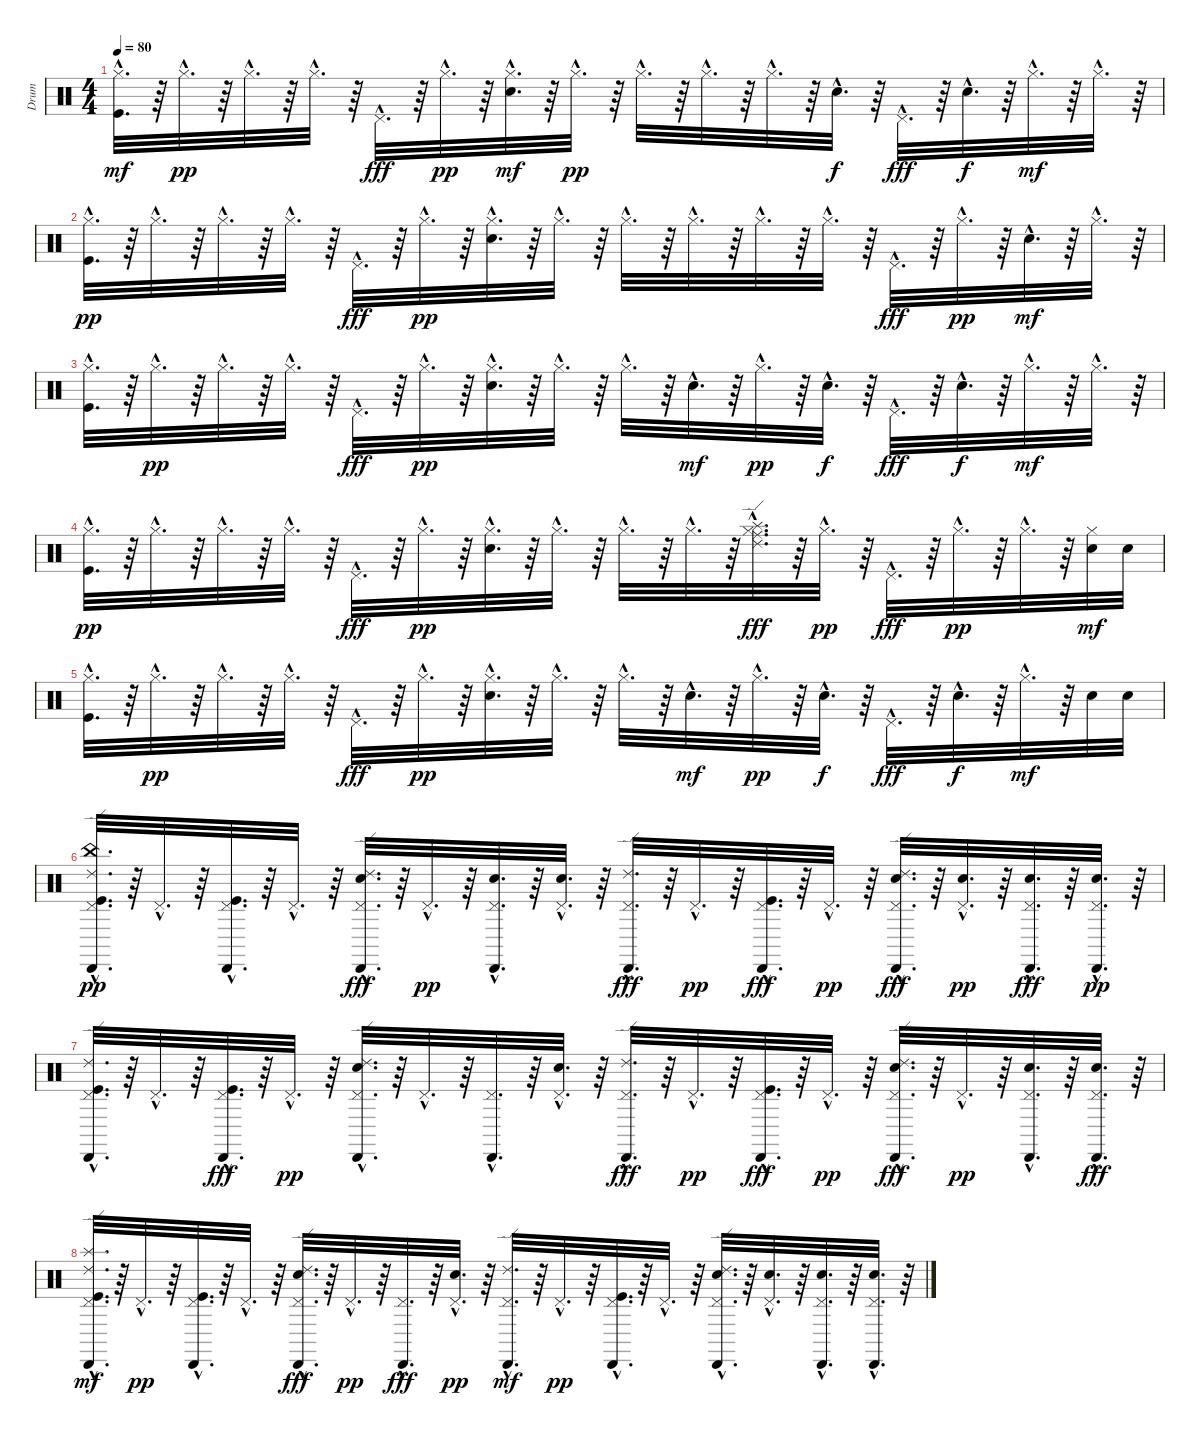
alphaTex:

\track ("Drum" "Drum") {instrument percussion}
\staff {score}
\articulation defaults
\ts (4 4)
\tempo 80
\clef neutral
\ks c
("Hi-Hat (closed)"{hac} "Kick (hit)"{hac}).32{d dy mf} r.64 "Hi-Hat (closed)"{hac}.32{d dy pp} r.64 "Hi-Hat (closed)"{hac}.32{d} r.64 "Hi-Hat (closed)"{hac}.32{d} r.64 "Pedal Hi-Hat (hit)"{hac}.32{d dy fff} r.64 "Hi-Hat (closed)"{hac}.32{d dy pp} r.64 ("Hi-Hat (closed)"{hac} "Electric Snare (hit)"{hac}).32{d dy mf} r.64 "Hi-Hat (closed)"{hac}.32{d dy pp} r.64 "Hi-Hat (closed)"{hac}.32{d} r.64 "Hi-Hat (closed)"{hac}.32{d} r.64 "Hi-Hat (closed)"{hac}.32{d} r.64 "Electric Snare (hit)"{hac}.32{d dy f} r.64 "Pedal Hi-Hat (hit)"{hac}.32{d dy fff} r.64 "Electric Snare (hit)"{hac}.32{d dy f} r.64 "Hi-Hat (closed)"{hac}.32{d dy mf} r.64 "Hi-Hat (closed)"{hac}.32{d} r.64 |
("Kick (hit)"{hac} "Hi-Hat (closed)"{hac}).32{d dy pp} r.64 "Hi-Hat (closed)"{hac}.32{d} r.64 "Hi-Hat (closed)"{hac}.32{d} r.64 "Hi-Hat (closed)"{hac}.32{d} r.64 "Pedal Hi-Hat (hit)"{hac}.32{d dy fff} r.64 "Hi-Hat (closed)"{hac}.32{d dy pp} r.64 ("Electric Snare (hit)"{hac} "Hi-Hat (closed)"{hac}).32{d} r.64 "Hi-Hat (closed)"{hac}.32{d} r.64 "Hi-Hat (closed)"{hac}.32{d} r.64 "Hi-Hat (closed)"{hac}.32{d} r.64 "Hi-Hat (closed)"{hac}.32{d} r.64 "Hi-Hat (closed)"{hac}.32{d} r.64 "Pedal Hi-Hat (hit)"{hac}.32{d dy fff} r.64 "Hi-Hat (closed)"{hac}.32{d dy pp} r.64 "Electric Snare (hit)"{hac}.32{d dy mf} r.64 "Hi-Hat (closed)"{hac}.32{d} r.64 |
("Hi-Hat (closed)"{hac} "Kick (hit)"{hac}).32{d} r.64 "Hi-Hat (closed)"{hac}.32{d dy pp} r.64 "Hi-Hat (closed)"{hac}.32{d} r.64 "Hi-Hat (closed)"{hac}.32{d} r.64 "Pedal Hi-Hat (hit)"{hac}.32{d dy fff} r.64 "Hi-Hat (closed)"{hac}.32{d dy pp} r.64 ("Electric Snare (hit)"{hac} "Hi-Hat (closed)"{hac}).32{d} r.64 "Hi-Hat (closed)"{hac}.32{d} r.64 "Hi-Hat (closed)"{hac}.32{d} r.64 "Electric Snare (hit)"{hac}.32{d dy mf} r.64 "Hi-Hat (closed)"{hac}.32{d dy pp} r.64 "Electric Snare (hit)"{hac}.32{d dy f} r.64 "Pedal Hi-Hat (hit)"{hac}.32{d dy fff} r.64 "Electric Snare (hit)"{hac}.32{d dy f} r.64 "Hi-Hat (closed)"{hac}.32{d dy mf} r.64 "Hi-Hat (closed)"{hac}.32{d} r.64 |
("Kick (hit)"{hac} "Hi-Hat (closed)"{hac}).32{d dy pp} r.64 "Hi-Hat (closed)"{hac}.32{d} r.64 "Hi-Hat (closed)"{hac}.32{d} r.64 "Hi-Hat (closed)"{hac}.32{d} r.64 "Pedal Hi-Hat (hit)"{hac}.32{d dy fff} r.64 "Hi-Hat (closed)"{hac}.32{d dy pp} r.64 ("Electric Snare (hit)"{hac} "Hi-Hat (closed)"{hac}).32{d} r.64 "Hi-Hat (closed)"{hac}.32{d} r.64 "Hi-Hat (closed)"{hac}.32{d} r.64 "Hi-Hat (closed)"{hac}.32{d} r.64 ("Hi-Hat (closed)"{hac} "Splash (hit)"{hac} "Ride (edge) 2"{hac} "Ride (middle)"{hac}).32{d dy fff} r.64 "Hi-Hat (closed)"{hac}.32{d dy pp} r.64 "Pedal Hi-Hat (hit)"{hac}.32{d dy fff} r.64 "Hi-Hat (closed)"{hac}.32{d dy pp} r.64 "Hi-Hat (closed)"{hac}.32{d} r.64 ("Hi-Hat (closed)" "Electric Snare (hit)").32{dy mf} "Electric Snare (hit)".32 |
("Hi-Hat (closed)"{hac} "Kick (hit)"{hac}).32{d} r.64 "Hi-Hat (closed)"{hac}.32{d dy pp} r.64 "Hi-Hat (closed)"{hac}.32{d} r.64 "Hi-Hat (closed)"{hac}.32{d} r.64 "Pedal Hi-Hat (hit)"{hac}.32{d dy fff} r.64 "Hi-Hat (closed)"{hac}.32{d dy pp} r.64 ("Electric Snare (hit)"{hac} "Hi-Hat (closed)"{hac}).32{d} r.64 "Hi-Hat (closed)"{hac}.32{d} r.64 "Hi-Hat (closed)"{hac}.32{d} r.64 "Electric Snare (hit)"{hac}.32{d dy mf} r.64 "Hi-Hat (closed)"{hac}.32{d dy pp} r.64 "Electric Snare (hit)"{hac}.32{d dy f} r.64 "Pedal Hi-Hat (hit)"{hac}.32{d dy fff} r.64 "Electric Snare (hit)"{hac}.32{d dy f} r.64 "Hi-Hat (closed)"{hac}.32{d dy mf} r.64 "Electric Snare (hit)".32 "Electric Snare (hit)".32 |
("China (hit)"{hac} "Ride (edge) 2"{hac} "Kick (hit)"{hac} "Cabasa (hit)"{hac} "Pedal Hi-Hat (hit)"{hac}).32{d dy pp} r.64 "Pedal Hi-Hat (hit)"{hac}.32{d} r.64 ("Kick (hit)"{hac} "Cabasa (hit)"{hac} "Pedal Hi-Hat (hit)"{hac}).32{d} r.64 "Pedal Hi-Hat (hit)"{hac}.32{d} r.64 ("Cabasa (hit)"{hac} "Snare (hit) 2"{hac} "Pedal Hi-Hat (hit)"{hac} "Ride (edge) 2"{hac}).32{d dy fff} r.64 "Pedal Hi-Hat (hit)"{hac}.32{d dy pp} r.64 ("Snare (hit) 2"{hac} "Cabasa (hit)"{hac} "Pedal Hi-Hat (hit)"{hac}).32{d} r.64 ("Pedal Hi-Hat (hit)"{hac} "Snare (hit) 2"{hac}).32{d} r.64 ("Pedal Hi-Hat (hit)"{hac} "Cabasa (hit)"{hac} "Ride (edge) 2"{hac}).32{d dy fff} r.64 "Pedal Hi-Hat (hit)"{hac}.32{d dy pp} r.64 ("Kick (hit)"{hac} "Pedal Hi-Hat (hit)"{hac} "Cabasa (hit)"{hac}).32{d dy fff} r.64 "Pedal Hi-Hat (hit)"{hac}.32{d dy pp} r.64 ("Pedal Hi-Hat (hit)"{hac} "Snare (hit) 2"{hac} "Cabasa (hit)"{hac} "Ride (edge) 2"{hac}).32{d dy fff} r.64 ("Snare (hit) 2"{hac} "Pedal Hi-Hat (hit)"{hac}).32{d dy pp} r.64 ("Snare (hit) 2"{hac} "Pedal Hi-Hat (hit)"{hac} "Cabasa (hit)"{hac}).32{d dy fff} r.64 ("Snare (hit) 2"{hac} "Cabasa (hit)"{hac} "Pedal Hi-Hat (hit)"{hac}).32{d dy pp} r.64 |
("Kick (hit)"{hac} "Ride (edge) 2"{hac} "Cabasa (hit)"{hac} "Pedal Hi-Hat (hit)"{hac}).32{d} r.64 "Pedal Hi-Hat (hit)"{hac}.32{d} r.64 ("Pedal Hi-Hat (hit)"{hac} "Cabasa (hit)"{hac} "Kick (hit)"{hac}).32{d dy fff} r.64 "Pedal Hi-Hat (hit)"{hac}.32{d dy pp} r.64 ("Snare (hit) 2"{hac} "Ride (edge) 2"{hac} "Cabasa (hit)"{hac} "Pedal Hi-Hat (hit)"{hac}).32{d} r.64 "Pedal Hi-Hat (hit)"{hac}.32{d} r.64 ("Cabasa (hit)"{hac} "Pedal Hi-Hat (hit)"{hac}).32{d} r.64 ("Pedal Hi-Hat (hit)"{hac} "Snare (hit) 2"{hac}).32{d} r.64 ("Ride (edge) 2"{hac} "Pedal Hi-Hat (hit)"{hac} "Cabasa (hit)"{hac}).32{d dy fff} r.64 "Pedal Hi-Hat (hit)"{hac}.32{d dy pp} r.64 ("Pedal Hi-Hat (hit)"{hac} "Cabasa (hit)"{hac} "Kick (hit)"{hac}).32{d dy fff} r.64 "Pedal Hi-Hat (hit)"{hac}.32{d dy pp} r.64 ("Ride (edge) 2"{hac} "Snare (hit) 2"{hac} "Pedal Hi-Hat (hit)"{hac} "Cabasa (hit)"{hac}).32{d dy fff} r.64 "Pedal Hi-Hat (hit)"{hac}.32{d dy pp} r.64 ("Cabasa (hit)"{hac} "Pedal Hi-Hat (hit)"{hac} "Snare (hit) 2"{hac}).32{d} r.64 ("Pedal Hi-Hat (hit)"{hac} "Snare (hit) 2"{hac} "Cabasa (hit)"{hac}).32{d dy fff} r.64 |
("Splash (hit)"{hac} "Cabasa (hit)"{hac} "Pedal Hi-Hat (hit)"{hac} "Kick (hit)"{hac} "Ride (edge) 2"{hac}).32{d dy mf} r.64 "Pedal Hi-Hat (hit)"{hac}.32{d dy pp} r.64 ("Cabasa (hit)"{hac} "Pedal Hi-Hat (hit)"{hac} "Kick (hit)"{hac}).32{d} r.64 "Pedal Hi-Hat (hit)"{hac}.32{d} r.64 ("Snare (hit) 2"{hac} "Pedal Hi-Hat (hit)"{hac} "Ride (edge) 2"{hac} "Cabasa (hit)"{hac}).32{d dy fff} r.64 "Pedal Hi-Hat (hit)"{hac}.32{d dy pp} r.64 ("Pedal Hi-Hat (hit)"{hac} "Cabasa (hit)"{hac}).32{d dy fff} r.64 ("Pedal Hi-Hat (hit)"{hac} "Snare (hit) 2"{hac}).32{d dy pp} r.64 ("Cabasa (hit)"{hac} "Pedal Hi-Hat (hit)"{hac} "Ride (edge) 2"{hac}).32{d dy mf} r.64 "Pedal Hi-Hat (hit)"{hac}.32{d dy pp} r.64 ("Kick (hit)"{hac} "Cabasa (hit)"{hac} "Pedal Hi-Hat (hit)"{hac}).32{d} r.64 "Pedal Hi-Hat (hit)"{hac}.32{d} r.64 ("Cabasa (hit)"{hac} "Snare (hit) 2"{hac} "Ride (edge) 2"{hac} "Pedal Hi-Hat (hit)"{hac}).32{d} r.64 ("Snare (hit) 2"{hac} "Pedal Hi-Hat (hit)"{hac}).32{d} r.64 ("Cabasa (hit)"{hac} "Snare (hit) 2"{hac} "Pedal Hi-Hat (hit)"{hac}).32{d} r.64 ("Cabasa (hit)"{hac} "Pedal Hi-Hat (hit)"{hac} "Snare (hit) 2"{hac}).32{d} r.64
